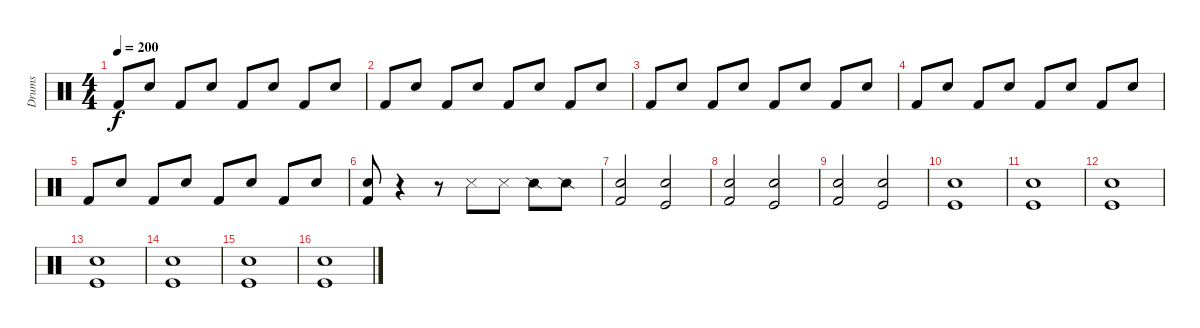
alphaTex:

\track ("Drums" "Drums") {instrument percussion}
\staff {score}
\articulation defaults
\ts (4 4)
\tempo 200
\clef neutral
\ks c "Kick (hit) 2".8{dy f} "Snare (hit) 2".8 "Kick (hit) 2".8 "Snare (hit) 2".8 "Kick (hit) 2".8 "Snare (hit) 2".8 "Kick (hit) 2".8 "Snare (hit) 2".8
|
"Kick (hit) 2".8 "Snare (hit) 2".8 "Kick (hit) 2".8 "Snare (hit) 2".8 "Kick (hit) 2".8 "Snare (hit) 2".8 "Kick (hit) 2".8 "Snare (hit) 2".8 |
"Kick (hit) 2".8 "Snare (hit) 2".8 "Kick (hit) 2".8 "Snare (hit) 2".8 "Kick (hit) 2".8 "Snare (hit) 2".8 "Kick (hit) 2".8 "Snare (hit) 2".8 |
"Kick (hit) 2".8 "Snare (hit) 2".8 "Kick (hit) 2".8 "Snare (hit) 2".8 "Kick (hit) 2".8 "Snare (hit) 2".8 "Kick (hit) 2".8 "Snare (hit) 2".8 |
"Kick (hit) 2".8 "Snare (hit) 2".8 "Kick (hit) 2".8 "Snare (hit) 2".8 "Kick (hit) 2".8 "Snare (hit) 2".8 "Kick (hit) 2".8 "Snare (hit) 2".8 |
("Snare (hit) 2" "Kick (hit) 2").8 r.4 r.8 "Snare (side stick) 3".8 "Snare (side stick) 3".8 "Snare (side stick) 2".8 "Snare (side stick) 2".8 |
("Kick (hit) 2" "Snare (hit) 2").2 ("Kick (hit)" "Snare (hit) 2").2 |
("Snare (hit) 2" "Kick (hit) 2").2 ("Kick (hit)" "Snare (hit) 2").2 |
("Snare (hit) 2" "Kick (hit) 2").2 ("Kick (hit)" "Snare (hit) 2").2 |
("Kick (hit)" "Snare (hit) 2").1 |
("Kick (hit)" "Snare (hit) 2").1 |
("Kick (hit)" "Snare (hit) 2").1 |
("Kick (hit)" "Snare (hit) 2").1 |
("Kick (hit)" "Snare (hit) 2").1 |
("Kick (hit)" "Snare (hit) 2").1 |
("Kick (hit)" "Snare (hit) 2").1
